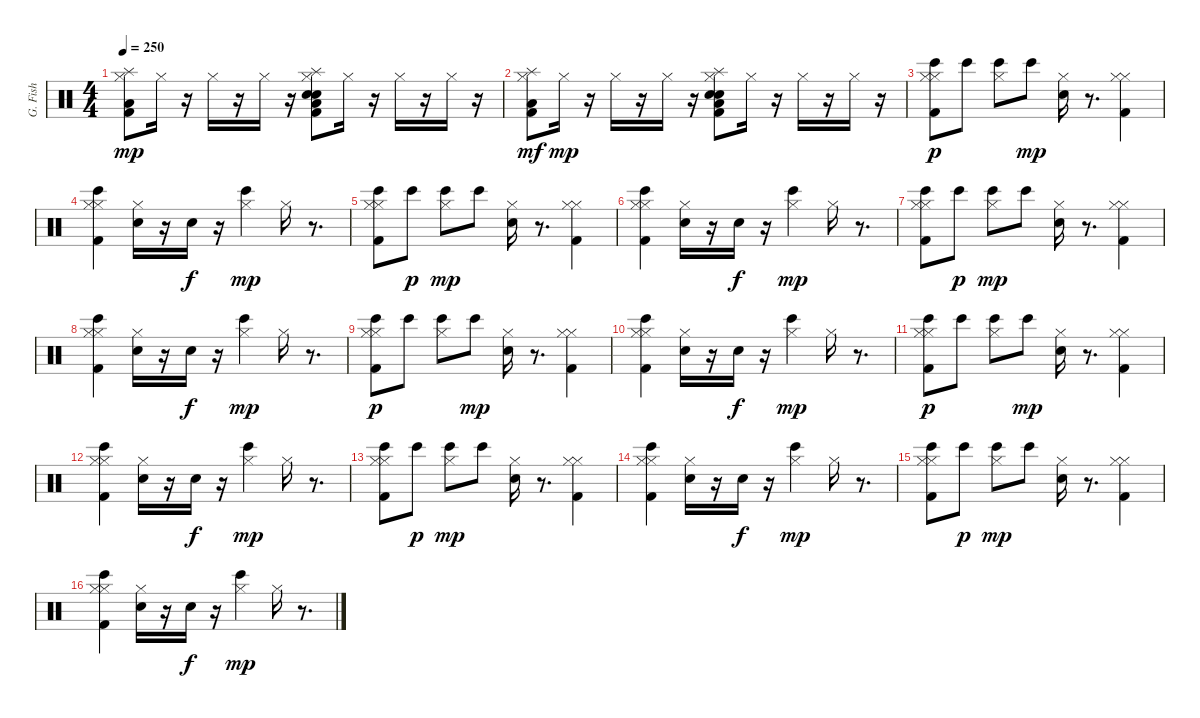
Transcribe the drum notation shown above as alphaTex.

\track ("G. Fish" "G. Fish") {instrument percussion}
\staff {score}
\articulation defaults
\ts (4 4)
\tempo 250
\clef neutral
\ks c
("Kick (hit) 2" "Splash (hit)" "Hi-Hat (closed)" "Low Floor Tom (hit)").8{dy mp} "Hi-Hat (closed)".16 r.16 "Hi-Hat (closed)".16 r.16 "Hi-Hat (closed)".16 r.16 ("Snare (hit) 2" "Kick (hit) 2" "Splash (hit)" "Electric Snare (hit)" "Low Floor Tom (hit)" "Hi-Hat (closed)").8 "Hi-Hat (closed)".16 r.16 "Hi-Hat (closed)".16 r.16 "Hi-Hat (closed)".16 r.16 |
("Hi-Hat (closed)" "Low Floor Tom (hit)" "Kick (hit) 2" "Splash (hit)").8{dy mf} "Hi-Hat (closed)".16{dy mp} r.16 "Hi-Hat (closed)".16 r.16 "Hi-Hat (closed)".16 r.16 ("Snare (hit) 2" "Electric Snare (hit)" "Kick (hit) 2" "Splash (hit)" "Low Floor Tom (hit)" "Hi-Hat (closed)").8 "Hi-Hat (closed)".16 r.16 "Hi-Hat (closed)".16 r.16 "Hi-Hat (closed)".16 r.16 |
("Kick (hit) 2" "Hi-Hat (closed)" "Bongo High (hit)" "Hi-Hat (closed)").8{dy p} "Bongo High (hit)".8 ("Hi-Hat (closed)" "Bongo High (hit)").8 "Bongo High (hit)".8{dy mp} ("Electric Snare (hit)" "Hi-Hat (closed)").16 r.8{d} ("Kick (hit) 2" "Hi-Hat (closed)" "Hi-Hat (closed)").4 |
("Kick (hit) 2" "Hi-Hat (closed)" "Hi-Hat (closed)" "Bongo High (hit)").4 ("Electric Snare (hit)" "Hi-Hat (closed)").16 r.16 "Electric Snare (hit)".16{dy f} r.16 ("Hi-Hat (closed)" "Bongo High (hit)").4{dy mp} "Hi-Hat (closed)".16 r.8{d} |
("Hi-Hat (closed)" "Bongo High (hit)" "Kick (hit) 2" "Hi-Hat (closed)").8 "Bongo High (hit)".8{dy p} ("Bongo High (hit)" "Hi-Hat (closed)").8{dy mp} "Bongo High (hit)".8 ("Hi-Hat (closed)" "Electric Snare (hit)").16 r.8{d} ("Hi-Hat (closed)" "Kick (hit) 2" "Hi-Hat (closed)").4 |
("Hi-Hat (closed)" "Kick (hit) 2" "Hi-Hat (closed)" "Bongo High (hit)").4 ("Electric Snare (hit)" "Hi-Hat (closed)").16 r.16 "Electric Snare (hit)".16{dy f} r.16 ("Bongo High (hit)" "Hi-Hat (closed)").4{dy mp} "Hi-Hat (closed)".16 r.8{d} |
("Bongo High (hit)" "Hi-Hat (closed)" "Kick (hit) 2" "Hi-Hat (closed)").8 "Bongo High (hit)".8{dy p} ("Bongo High (hit)" "Hi-Hat (closed)").8{dy mp} "Bongo High (hit)".8 ("Hi-Hat (closed)" "Electric Snare (hit)").16 r.8{d} ("Hi-Hat (closed)" "Kick (hit) 2" "Hi-Hat (closed)").4 |
("Hi-Hat (closed)" "Bongo High (hit)" "Kick (hit) 2" "Hi-Hat (closed)").4 ("Electric Snare (hit)" "Hi-Hat (closed)").16 r.16 "Electric Snare (hit)".16{dy f} r.16 ("Bongo High (hit)" "Hi-Hat (closed)").4{dy mp} "Hi-Hat (closed)".16 r.8{d} |
("Hi-Hat (closed)" "Kick (hit) 2" "Hi-Hat (closed)" "Bongo High (hit)").8{dy p} "Bongo High (hit)".8 ("Hi-Hat (closed)" "Bongo High (hit)").8 "Bongo High (hit)".8{dy mp} ("Hi-Hat (closed)" "Electric Snare (hit)").16 r.8{d} ("Hi-Hat (closed)" "Kick (hit) 2" "Hi-Hat (closed)").4 |
("Hi-Hat (closed)" "Kick (hit) 2" "Hi-Hat (closed)" "Bongo High (hit)").4 ("Electric Snare (hit)" "Hi-Hat (closed)").16 r.16 "Electric Snare (hit)".16{dy f} r.16 ("Bongo High (hit)" "Hi-Hat (closed)").4{dy mp} "Hi-Hat (closed)".16 r.8{d} |
("Kick (hit) 2" "Hi-Hat (closed)" "Bongo High (hit)" "Hi-Hat (closed)").8{dy p} "Bongo High (hit)".8 ("Hi-Hat (closed)" "Bongo High (hit)").8 "Bongo High (hit)".8{dy mp} ("Electric Snare (hit)" "Hi-Hat (closed)").16 r.8{d} ("Kick (hit) 2" "Hi-Hat (closed)" "Hi-Hat (closed)").4 |
("Kick (hit) 2" "Hi-Hat (closed)" "Hi-Hat (closed)" "Bongo High (hit)").4 ("Electric Snare (hit)" "Hi-Hat (closed)").16 r.16 "Electric Snare (hit)".16{dy f} r.16 ("Hi-Hat (closed)" "Bongo High (hit)").4{dy mp} "Hi-Hat (closed)".16 r.8{d} |
("Hi-Hat (closed)" "Bongo High (hit)" "Kick (hit) 2" "Hi-Hat (closed)").8 "Bongo High (hit)".8{dy p} ("Bongo High (hit)" "Hi-Hat (closed)").8{dy mp} "Bongo High (hit)".8 ("Hi-Hat (closed)" "Electric Snare (hit)").16 r.8{d} ("Hi-Hat (closed)" "Kick (hit) 2" "Hi-Hat (closed)").4 |
("Hi-Hat (closed)" "Kick (hit) 2" "Hi-Hat (closed)" "Bongo High (hit)").4 ("Electric Snare (hit)" "Hi-Hat (closed)").16 r.16 "Electric Snare (hit)".16{dy f} r.16 ("Bongo High (hit)" "Hi-Hat (closed)").4{dy mp} "Hi-Hat (closed)".16 r.8{d} |
("Bongo High (hit)" "Hi-Hat (closed)" "Kick (hit) 2" "Hi-Hat (closed)").8 "Bongo High (hit)".8{dy p} ("Bongo High (hit)" "Hi-Hat (closed)").8{dy mp} "Bongo High (hit)".8 ("Hi-Hat (closed)" "Electric Snare (hit)").16 r.8{d} ("Hi-Hat (closed)" "Kick (hit) 2" "Hi-Hat (closed)").4 |
("Hi-Hat (closed)" "Bongo High (hit)" "Kick (hit) 2" "Hi-Hat (closed)").4 ("Electric Snare (hit)" "Hi-Hat (closed)").16 r.16 "Electric Snare (hit)".16{dy f} r.16 ("Bongo High (hit)" "Hi-Hat (closed)").4{dy mp} "Hi-Hat (closed)".16 r.8{d}
